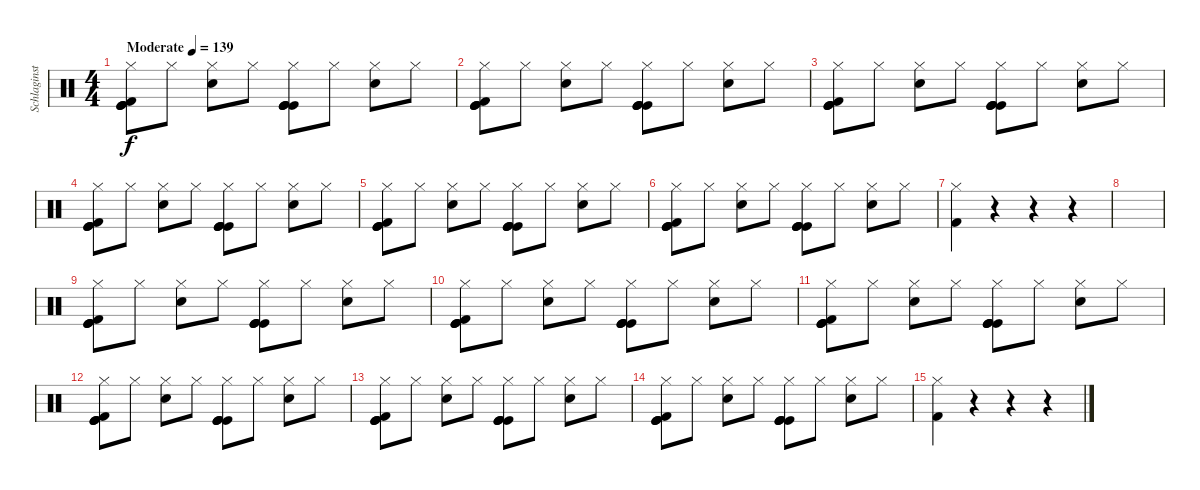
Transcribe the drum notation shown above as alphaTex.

\track ("Schlaginstrumente - Auswahl" "Schlaginst") {instrument percussion}
\staff {score}
\articulation defaults
\ts (4 4)
\tempo (139 "Moderate")
\clef neutral
\ks c
("Kick (hit)" "Kick (hit)" "Kick (hit)" "Hi-Hat (closed)" "Kick (hit) 2").8{dy f} "Hi-Hat (closed)".8 ("Hi-Hat (closed)" "Snare (hit) 2").8 "Hi-Hat (closed)".8 ("Kick (hit)" "Kick (hit)" "Kick (hit)" "Hi-Hat (closed)" "Kick (hit)").8 "Hi-Hat (closed)".8 ("Hi-Hat (closed)" "Snare (hit) 2").8 "Hi-Hat (closed)".8 |
("Kick (hit)" "Kick (hit)" "Kick (hit)" "Hi-Hat (closed)" "Kick (hit) 2").8 "Hi-Hat (closed)".8 ("Hi-Hat (closed)" "Snare (hit) 2").8 "Hi-Hat (closed)".8 ("Kick (hit)" "Kick (hit)" "Kick (hit)" "Hi-Hat (closed)" "Kick (hit)").8 "Hi-Hat (closed)".8 ("Hi-Hat (closed)" "Snare (hit) 2").8 "Hi-Hat (closed)".8 |
("Kick (hit)" "Kick (hit)" "Kick (hit)" "Hi-Hat (closed)" "Kick (hit) 2").8 "Hi-Hat (closed)".8 ("Hi-Hat (closed)" "Snare (hit) 2").8 "Hi-Hat (closed)".8 ("Kick (hit)" "Kick (hit)" "Kick (hit)" "Hi-Hat (closed)" "Kick (hit)").8 "Hi-Hat (closed)".8 ("Hi-Hat (closed)" "Snare (hit) 2").8 "Hi-Hat (closed)".8 |
("Kick (hit)" "Kick (hit)" "Kick (hit)" "Hi-Hat (closed)" "Kick (hit) 2").8 "Hi-Hat (closed)".8 ("Hi-Hat (closed)" "Snare (hit) 2").8 "Hi-Hat (closed)".8 ("Kick (hit)" "Kick (hit)" "Kick (hit)" "Hi-Hat (closed)" "Kick (hit)").8 "Hi-Hat (closed)".8 ("Hi-Hat (closed)" "Snare (hit) 2").8 "Hi-Hat (closed)".8 |
("Kick (hit)" "Kick (hit)" "Kick (hit)" "Hi-Hat (closed)" "Kick (hit) 2").8 "Hi-Hat (closed)".8 ("Hi-Hat (closed)" "Snare (hit) 2").8 "Hi-Hat (closed)".8 ("Kick (hit)" "Kick (hit)" "Kick (hit)" "Hi-Hat (closed)" "Kick (hit)").8 "Hi-Hat (closed)".8 ("Hi-Hat (closed)" "Snare (hit) 2").8 "Hi-Hat (closed)".8 |
("Kick (hit)" "Kick (hit)" "Kick (hit)" "Hi-Hat (closed)" "Kick (hit) 2").8 "Hi-Hat (closed)".8 ("Hi-Hat (closed)" "Snare (hit) 2").8 "Hi-Hat (closed)".8 ("Kick (hit)" "Kick (hit)" "Kick (hit)" "Hi-Hat (closed)" "Kick (hit)").8 "Hi-Hat (closed)".8 ("Hi-Hat (closed)" "Snare (hit) 2").8 "Hi-Hat (closed)".8 |
("Hi-Hat (closed)" "Kick (hit) 2").4 r.4 r.4 r.4 |
|
("Kick (hit)" "Kick (hit)" "Kick (hit)" "Hi-Hat (closed)" "Kick (hit) 2").8 "Hi-Hat (closed)".8 ("Hi-Hat (closed)" "Snare (hit) 2").8 "Hi-Hat (closed)".8 ("Kick (hit)" "Kick (hit)" "Kick (hit)" "Hi-Hat (closed)" "Kick (hit)").8 "Hi-Hat (closed)".8 ("Hi-Hat (closed)" "Snare (hit) 2").8 "Hi-Hat (closed)".8 |
("Kick (hit)" "Kick (hit)" "Kick (hit)" "Hi-Hat (closed)" "Kick (hit) 2").8 "Hi-Hat (closed)".8 ("Hi-Hat (closed)" "Snare (hit) 2").8 "Hi-Hat (closed)".8 ("Kick (hit)" "Kick (hit)" "Kick (hit)" "Hi-Hat (closed)" "Kick (hit)").8 "Hi-Hat (closed)".8 ("Hi-Hat (closed)" "Snare (hit) 2").8 "Hi-Hat (closed)".8 |
("Kick (hit)" "Kick (hit)" "Kick (hit)" "Hi-Hat (closed)" "Kick (hit) 2").8 "Hi-Hat (closed)".8 ("Hi-Hat (closed)" "Snare (hit) 2").8 "Hi-Hat (closed)".8 ("Kick (hit)" "Kick (hit)" "Kick (hit)" "Hi-Hat (closed)" "Kick (hit)").8 "Hi-Hat (closed)".8 ("Hi-Hat (closed)" "Snare (hit) 2").8 "Hi-Hat (closed)".8 |
("Kick (hit)" "Kick (hit)" "Kick (hit)" "Hi-Hat (closed)" "Kick (hit) 2").8 "Hi-Hat (closed)".8 ("Hi-Hat (closed)" "Snare (hit) 2").8 "Hi-Hat (closed)".8 ("Kick (hit)" "Kick (hit)" "Kick (hit)" "Hi-Hat (closed)" "Kick (hit)").8 "Hi-Hat (closed)".8 ("Hi-Hat (closed)" "Snare (hit) 2").8 "Hi-Hat (closed)".8 |
("Kick (hit)" "Kick (hit)" "Kick (hit)" "Hi-Hat (closed)" "Kick (hit) 2").8 "Hi-Hat (closed)".8 ("Hi-Hat (closed)" "Snare (hit) 2").8 "Hi-Hat (closed)".8 ("Kick (hit)" "Kick (hit)" "Kick (hit)" "Hi-Hat (closed)" "Kick (hit)").8 "Hi-Hat (closed)".8 ("Hi-Hat (closed)" "Snare (hit) 2").8 "Hi-Hat (closed)".8 |
("Kick (hit)" "Kick (hit)" "Kick (hit)" "Hi-Hat (closed)" "Kick (hit) 2").8 "Hi-Hat (closed)".8 ("Hi-Hat (closed)" "Snare (hit) 2").8 "Hi-Hat (closed)".8 ("Kick (hit)" "Kick (hit)" "Kick (hit)" "Hi-Hat (closed)" "Kick (hit)").8 "Hi-Hat (closed)".8 ("Hi-Hat (closed)" "Snare (hit) 2").8 "Hi-Hat (closed)".8 |
("Hi-Hat (closed)" "Kick (hit) 2").4 r.4 r.4 r.4
